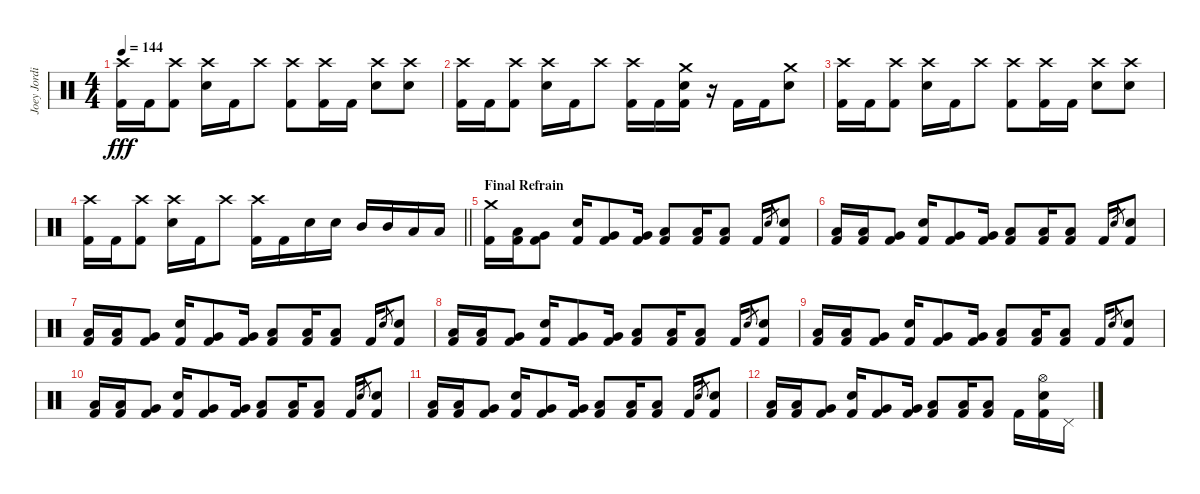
\track ("Joey Jordison" "Joey Jordi") {instrument percussion}
\staff {score}
\articulation defaults
\ts (4 4)
\tempo 144
\clef neutral
\ks c
("Crash high (hit)" "Kick (hit) 2").16{dy fff} "Kick (hit) 2".16 ("Crash high (hit)" "Kick (hit) 2").8 ("Crash high (hit)" "Electric Snare (hit)").16 "Kick (hit) 2".16 "Crash high (hit)".8 ("Crash high (hit)" "Kick (hit) 2").8 ("Crash high (hit)" "Kick (hit) 2").16 "Kick (hit) 2".16 ("Crash high (hit)" "Electric Snare (hit)").8 ("Crash high (hit)" "Electric Snare (hit)").8 |
("Crash high (hit)" "Kick (hit) 2").16 "Kick (hit) 2".16 ("Crash high (hit)" "Kick (hit) 2").8 ("Crash high (hit)" "Electric Snare (hit)").16 "Kick (hit) 2".16 "Crash high (hit)".8 ("Crash high (hit)" "Kick (hit) 2").16 "Kick (hit) 2".16 ("Crash medium (hit)" "Electric Snare (hit)" "Kick (hit) 2").16 r.16 "Kick (hit) 2".16 "Kick (hit) 2".16 ("Crash medium (hit)" "Electric Snare (hit)").8 |
("Crash high (hit)" "Kick (hit) 2").16 "Kick (hit) 2".16 ("Crash high (hit)" "Kick (hit) 2").8 ("Crash high (hit)" "Electric Snare (hit)").16 "Kick (hit) 2".16 "Crash high (hit)".8 ("Crash high (hit)" "Kick (hit) 2").8 ("Crash high (hit)" "Kick (hit) 2").16 "Kick (hit) 2".16 ("Crash high (hit)" "Electric Snare (hit)").8 ("Crash high (hit)" "Electric Snare (hit)").8 |
\barLineRight lightlight
("Crash high (hit)" "Kick (hit) 2").16 "Kick (hit) 2".16 ("Crash high (hit)" "Kick (hit) 2").8 ("Crash high (hit)" "Electric Snare (hit)").16 "Kick (hit) 2".16 "Crash high (hit)".8 ("Crash high (hit)" "Kick (hit) 2").16 "Kick (hit) 2".16 "Electric Snare (hit)".16 "Electric Snare (hit)".16 "Mid Tom (hit)".16 "Mid Tom (hit)".16 "Low Tom (hit)".16 "Low Tom (hit)".16 |
\section ("" "Final Refrain")
("Crash medium (hit)" "Kick (hit) 2").16 ("Low Tom (hit)" "Kick (hit) 2").16 ("Very Low Tom (hit)" "Kick (hit) 2").8 ("Electric Snare (hit)" "Kick (hit) 2").16 ("Very Low Tom (hit)" "Kick (hit) 2").8 ("Very Low Tom (hit)" "Kick (hit) 2").16 ("Low Floor Tom (hit)" "Kick (hit) 2").8 ("Low Floor Tom (hit)" "Kick (hit) 2").16 ("Low Floor Tom (hit)" "Kick (hit) 2").8 "Kick (hit) 2".16 "Electric Snare (hit)".8{gr} ("Electric Snare (hit)" "Kick (hit) 2").8 |
("Low Tom (hit)" "Kick (hit) 2").16 ("Low Tom (hit)" "Kick (hit) 2").16 ("Very Low Tom (hit)" "Kick (hit) 2").8 ("Electric Snare (hit)" "Kick (hit) 2").16 ("Very Low Tom (hit)" "Kick (hit) 2").8 ("Very Low Tom (hit)" "Kick (hit) 2").16 ("Low Floor Tom (hit)" "Kick (hit) 2").8 ("Low Floor Tom (hit)" "Kick (hit) 2").16 ("Low Floor Tom (hit)" "Kick (hit) 2").8 "Kick (hit) 2".16 "Electric Snare (hit)".8{gr} ("Electric Snare (hit)" "Kick (hit) 2").8 |
("Low Tom (hit)" "Kick (hit) 2").16 ("Low Tom (hit)" "Kick (hit) 2").16 ("Very Low Tom (hit)" "Kick (hit) 2").8 ("Electric Snare (hit)" "Kick (hit) 2").16 ("Very Low Tom (hit)" "Kick (hit) 2").8 ("Very Low Tom (hit)" "Kick (hit) 2").16 ("Low Floor Tom (hit)" "Kick (hit) 2").8 ("Low Floor Tom (hit)" "Kick (hit) 2").16 ("Low Floor Tom (hit)" "Kick (hit) 2").8 "Kick (hit) 2".16 "Electric Snare (hit)".8{gr} ("Electric Snare (hit)" "Kick (hit) 2").8 |
("Low Tom (hit)" "Kick (hit) 2").16 ("Low Tom (hit)" "Kick (hit) 2").16 ("Very Low Tom (hit)" "Kick (hit) 2").8 ("Electric Snare (hit)" "Kick (hit) 2").16 ("Very Low Tom (hit)" "Kick (hit) 2").8 ("Very Low Tom (hit)" "Kick (hit) 2").16 ("Low Floor Tom (hit)" "Kick (hit) 2").8 ("Low Floor Tom (hit)" "Kick (hit) 2").16 ("Low Floor Tom (hit)" "Kick (hit) 2").8 "Kick (hit) 2".16 "Electric Snare (hit)".8{gr} ("Electric Snare (hit)" "Kick (hit) 2").8 |
("Low Tom (hit)" "Kick (hit) 2").16 ("Low Tom (hit)" "Kick (hit) 2").16 ("Very Low Tom (hit)" "Kick (hit) 2").8 ("Electric Snare (hit)" "Kick (hit) 2").16 ("Very Low Tom (hit)" "Kick (hit) 2").8 ("Very Low Tom (hit)" "Kick (hit) 2").16 ("Low Floor Tom (hit)" "Kick (hit) 2").8 ("Low Floor Tom (hit)" "Kick (hit) 2").16 ("Low Floor Tom (hit)" "Kick (hit) 2").8 "Kick (hit) 2".16 "Electric Snare (hit)".8{gr} ("Electric Snare (hit)" "Kick (hit) 2").8 |
("Low Tom (hit)" "Kick (hit) 2").16 ("Low Tom (hit)" "Kick (hit) 2").16 ("Very Low Tom (hit)" "Kick (hit) 2").8 ("Electric Snare (hit)" "Kick (hit) 2").16 ("Very Low Tom (hit)" "Kick (hit) 2").8 ("Very Low Tom (hit)" "Kick (hit) 2").16 ("Low Floor Tom (hit)" "Kick (hit) 2").8 ("Low Floor Tom (hit)" "Kick (hit) 2").16 ("Low Floor Tom (hit)" "Kick (hit) 2").8 "Kick (hit) 2".16 "Electric Snare (hit)".8{gr} ("Electric Snare (hit)" "Kick (hit) 2").8 |
("Low Tom (hit)" "Kick (hit) 2").16 ("Low Tom (hit)" "Kick (hit) 2").16 ("Very Low Tom (hit)" "Kick (hit) 2").8 ("Electric Snare (hit)" "Kick (hit) 2").16 ("Very Low Tom (hit)" "Kick (hit) 2").8 ("Very Low Tom (hit)" "Kick (hit) 2").16 ("Low Floor Tom (hit)" "Kick (hit) 2").8 ("Low Floor Tom (hit)" "Kick (hit) 2").16 ("Low Floor Tom (hit)" "Kick (hit) 2").8 "Kick (hit) 2".16 "Electric Snare (hit)".8{gr} ("Electric Snare (hit)" "Kick (hit) 2").8 |
("Low Tom (hit)" "Kick (hit) 2").16 ("Low Tom (hit)" "Kick (hit) 2").16 ("Very Low Tom (hit)" "Kick (hit) 2").8 ("Electric Snare (hit)" "Kick (hit) 2").16 ("Very Low Tom (hit)" "Kick (hit) 2").8 ("Very Low Tom (hit)" "Kick (hit) 2").16 ("Low Floor Tom (hit)" "Kick (hit) 2").8 ("Low Floor Tom (hit)" "Kick (hit) 2").16 ("Low Floor Tom (hit)" "Kick (hit) 2").8 "Kick (hit) 2".16 ("Hi-Hat (open)" "Electric Snare (hit)" "Kick (hit) 2").16 "Pedal Hi-Hat (hit)".16
